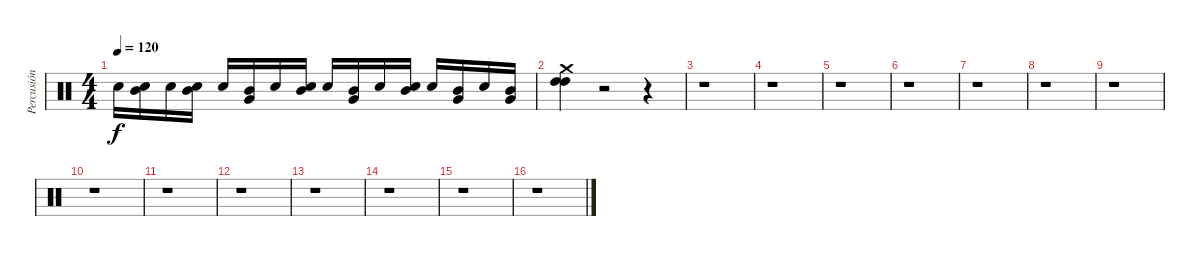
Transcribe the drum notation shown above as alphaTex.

\track ("Percusión" "Percusión") {instrument percussion}
\staff {score}
\articulation defaults
\ts (4 4)
\tempo 120
\clef neutral
\ks c "Snare (hit)".16{dy f}
("Snare (hit) 2" "Mid Tom (hit)").16 "Snare (hit) 2".16 ("Snare (hit) 2" "Mid Tom (hit)").16 "Snare (hit) 2".16 ("Very Low Tom (hit)" "Mid Tom (hit)").16 "Snare (hit) 2".16 ("Snare (hit) 2" "Mid Tom (hit)").16 "Snare (hit) 2".16 ("Very Low Tom (hit)" "Mid Tom (hit)").16 "Snare (hit) 2".16 ("Snare (hit) 2" "Mid Tom (hit)").16 "Snare (hit) 2".16 ("Very Low Tom (hit)" "Mid Tom (hit)").16 "Snare (hit) 2".16 ("Very Low Tom (hit)" "Mid Tom (hit)").16 |
("Crash medium (hit)" "High Tom (hit)" "High Tom (hit)").4 r.2 r.4 |
r.1 |
r.1 |
r.1 |
r.1 |
r.1 |
r.1 |
r.1 |
r.1 |
r.1 |
r.1 |
r.1 |
r.1 |
r.1 |
r.1
